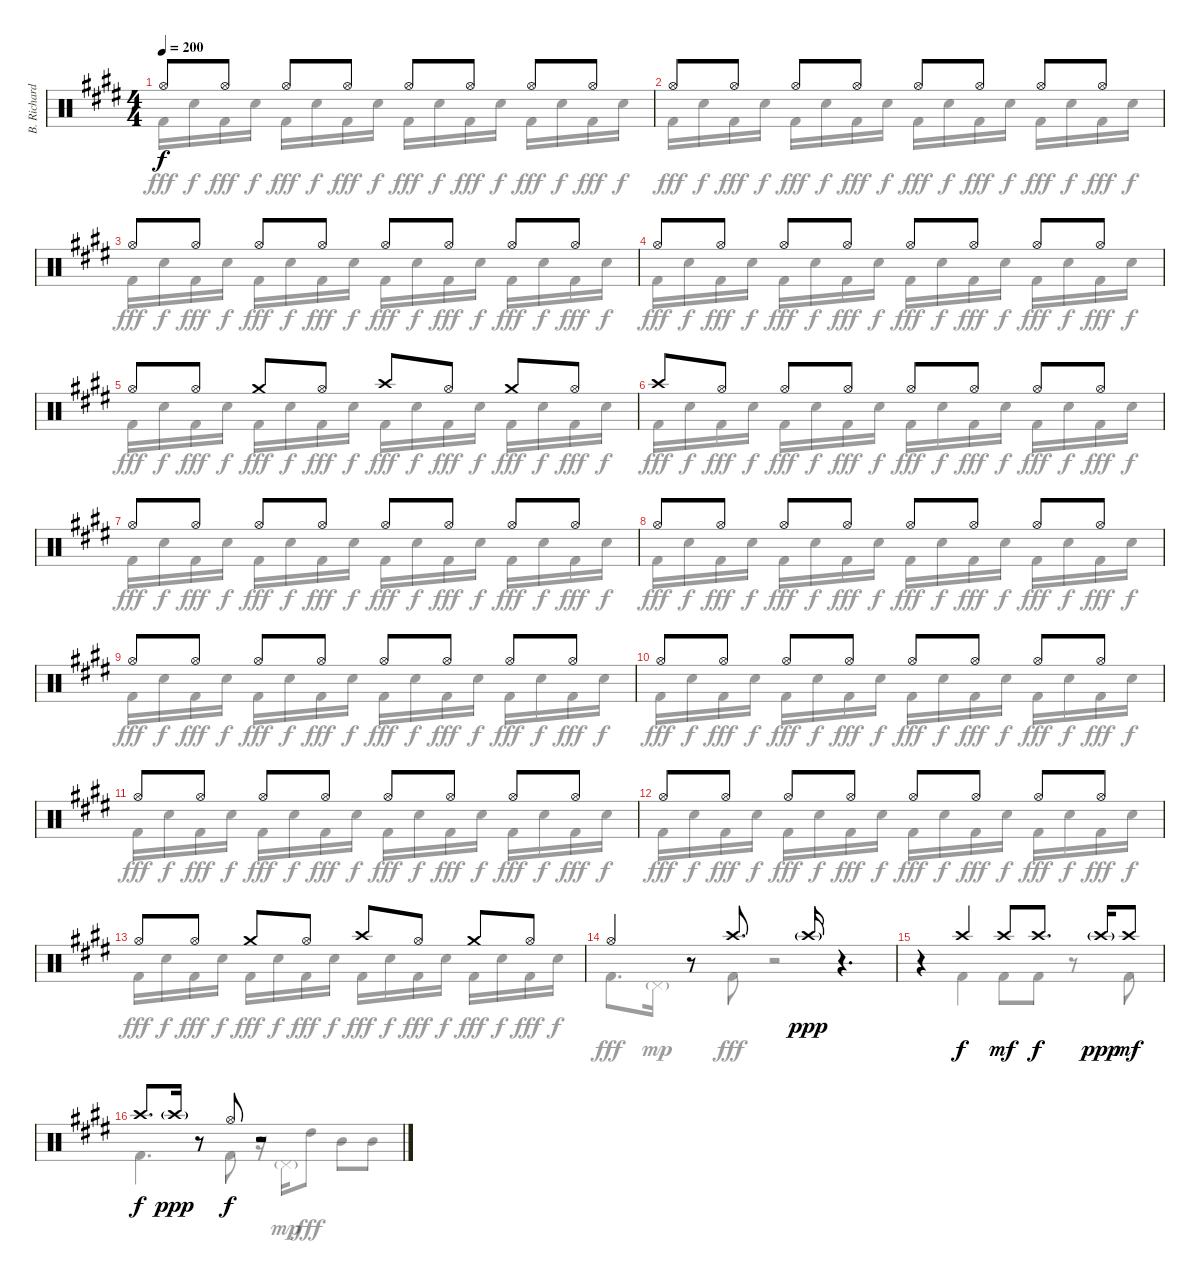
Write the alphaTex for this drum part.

\track ("B. Richardson Drums" "B. Richard") {instrument percussion}
\staff {score}
\articulation defaults
\voice
\ts (4 4)
\tempo 200
\clef neutral
\ks c#minor "Hi-Hat (open)".8{dy f} "Hi-Hat (open)".8 "Hi-Hat (open)".8 "Hi-Hat (open)".8 "Hi-Hat (open)".8 "Hi-Hat (open)".8 "Hi-Hat (open)".8 "Hi-Hat (open)".8
|
"Hi-Hat (open)".8 "Hi-Hat (open)".8 "Hi-Hat (open)".8 "Hi-Hat (open)".8 "Hi-Hat (open)".8 "Hi-Hat (open)".8 "Hi-Hat (open)".8 "Hi-Hat (open)".8 |
"Hi-Hat (open)".8 "Hi-Hat (open)".8 "Hi-Hat (open)".8 "Hi-Hat (open)".8 "Hi-Hat (open)".8 "Hi-Hat (open)".8 "Hi-Hat (open)".8 "Hi-Hat (open)".8 |
"Hi-Hat (open)".8 "Hi-Hat (open)".8 "Hi-Hat (open)".8 "Hi-Hat (open)".8 "Hi-Hat (open)".8 "Hi-Hat (open)".8 "Hi-Hat (open)".8 "Hi-Hat (open)".8 |
"Hi-Hat (open)".8 "Hi-Hat (open)".8 "Crash medium (hit)".8 "Hi-Hat (open)".8 "Crash high (hit)".8 "Hi-Hat (open)".8 "Crash medium (hit)".8 "Hi-Hat (open)".8 |
"Crash high (hit)".8 "Hi-Hat (open)".8 "Hi-Hat (open)".8 "Hi-Hat (open)".8 "Hi-Hat (open)".8 "Hi-Hat (open)".8 "Hi-Hat (open)".8 "Hi-Hat (open)".8 |
"Hi-Hat (open)".8 "Hi-Hat (open)".8 "Hi-Hat (open)".8 "Hi-Hat (open)".8 "Hi-Hat (open)".8 "Hi-Hat (open)".8 "Hi-Hat (open)".8 "Hi-Hat (open)".8 |
"Hi-Hat (open)".8 "Hi-Hat (open)".8 "Hi-Hat (open)".8 "Hi-Hat (open)".8 "Hi-Hat (open)".8 "Hi-Hat (open)".8 "Hi-Hat (open)".8 "Hi-Hat (open)".8 |
"Hi-Hat (open)".8 "Hi-Hat (open)".8 "Hi-Hat (open)".8 "Hi-Hat (open)".8 "Hi-Hat (open)".8 "Hi-Hat (open)".8 "Hi-Hat (open)".8 "Hi-Hat (open)".8 |
"Hi-Hat (open)".8 "Hi-Hat (open)".8 "Hi-Hat (open)".8 "Hi-Hat (open)".8 "Hi-Hat (open)".8 "Hi-Hat (open)".8 "Hi-Hat (open)".8 "Hi-Hat (open)".8 |
"Hi-Hat (open)".8 "Hi-Hat (open)".8 "Hi-Hat (open)".8 "Hi-Hat (open)".8 "Hi-Hat (open)".8 "Hi-Hat (open)".8 "Hi-Hat (open)".8 "Hi-Hat (open)".8 |
"Hi-Hat (open)".8 "Hi-Hat (open)".8 "Hi-Hat (open)".8 "Hi-Hat (open)".8 "Hi-Hat (open)".8 "Hi-Hat (open)".8 "Hi-Hat (open)".8 "Hi-Hat (open)".8 |
"Hi-Hat (open)".8 "Hi-Hat (open)".8 "Crash medium (hit)".8 "Hi-Hat (open)".8 "Crash high (hit)".8 "Hi-Hat (open)".8 "Crash medium (hit)".8 "Hi-Hat (open)".8 |
"Hi-Hat (open)".4 r.8 "Crash high (hit)".8{d} "Crash high (hit)"{g}.16{dy ppp} r.4{d} |
r.4 "Crash high (hit)".4{dy f} "Crash high (hit)".8{dy mf} "Crash high (hit)".8{d dy f} "Crash high (hit)"{g}.16{dy ppp} "Crash high (hit)".8{dy mf} |
"Crash high (hit)".8{d dy f} "Crash high (hit)"{g}.16{dy ppp} r.8 "Hi-Hat (open)".8{dy f} r.2
\voice
\clef neutral
\ottava regular
\simile none
\ks c#minor "Kick (hit) 2".16{dy fff} "Electric Snare (hit)".16{dy f} "Kick (hit) 2".16{dy fff} "Electric Snare (hit)".16{dy f} "Kick (hit) 2".16{dy fff} "Electric Snare (hit)".16{dy f} "Kick (hit) 2".16{dy fff} "Electric Snare (hit)".16{dy f} "Kick (hit) 2".16{dy fff} "Electric Snare (hit)".16{dy f} "Kick (hit) 2".16{dy fff} "Electric Snare (hit)".16{dy f} "Kick (hit) 2".16{dy fff} "Electric Snare (hit)".16{dy f} "Kick (hit) 2".16{dy fff} "Electric Snare (hit)".16{dy f}
|
"Kick (hit) 2".16{dy fff} "Electric Snare (hit)".16{dy f} "Kick (hit) 2".16{dy fff} "Electric Snare (hit)".16{dy f} "Kick (hit) 2".16{dy fff} "Electric Snare (hit)".16{dy f} "Kick (hit) 2".16{dy fff} "Electric Snare (hit)".16{dy f} "Kick (hit) 2".16{dy fff} "Electric Snare (hit)".16{dy f} "Kick (hit) 2".16{dy fff} "Electric Snare (hit)".16{dy f} "Kick (hit) 2".16{dy fff} "Electric Snare (hit)".16{dy f} "Kick (hit) 2".16{dy fff} "Electric Snare (hit)".16{dy f} |
"Kick (hit) 2".16{dy fff} "Electric Snare (hit)".16{dy f} "Kick (hit) 2".16{dy fff} "Electric Snare (hit)".16{dy f} "Kick (hit) 2".16{dy fff} "Electric Snare (hit)".16{dy f} "Kick (hit) 2".16{dy fff} "Electric Snare (hit)".16{dy f} "Kick (hit) 2".16{dy fff} "Electric Snare (hit)".16{dy f} "Kick (hit) 2".16{dy fff} "Electric Snare (hit)".16{dy f} "Kick (hit) 2".16{dy fff} "Electric Snare (hit)".16{dy f} "Kick (hit) 2".16{dy fff} "Electric Snare (hit)".16{dy f} |
"Kick (hit) 2".16{dy fff} "Electric Snare (hit)".16{dy f} "Kick (hit) 2".16{dy fff} "Electric Snare (hit)".16{dy f} "Kick (hit) 2".16{dy fff} "Electric Snare (hit)".16{dy f} "Kick (hit) 2".16{dy fff} "Electric Snare (hit)".16{dy f} "Kick (hit) 2".16{dy fff} "Electric Snare (hit)".16{dy f} "Kick (hit) 2".16{dy fff} "Electric Snare (hit)".16{dy f} "Kick (hit) 2".16{dy fff} "Electric Snare (hit)".16{dy f} "Kick (hit) 2".16{dy fff} "Electric Snare (hit)".16{dy f} |
"Kick (hit) 2".16{dy fff} "Electric Snare (hit)".16{dy f} "Kick (hit) 2".16{dy fff} "Electric Snare (hit)".16{dy f} "Kick (hit) 2".16{dy fff} "Electric Snare (hit)".16{dy f} "Kick (hit) 2".16{dy fff} "Electric Snare (hit)".16{dy f} "Kick (hit) 2".16{dy fff} "Electric Snare (hit)".16{dy f} "Kick (hit) 2".16{dy fff} "Electric Snare (hit)".16{dy f} "Kick (hit) 2".16{dy fff} "Electric Snare (hit)".16{dy f} "Kick (hit) 2".16{dy fff} "Electric Snare (hit)".16{dy f} |
"Kick (hit) 2".16{dy fff} "Electric Snare (hit)".16{dy f} "Kick (hit) 2".16{dy fff} "Electric Snare (hit)".16{dy f} "Kick (hit) 2".16{dy fff} "Electric Snare (hit)".16{dy f} "Kick (hit) 2".16{dy fff} "Electric Snare (hit)".16{dy f} "Kick (hit) 2".16{dy fff} "Electric Snare (hit)".16{dy f} "Kick (hit) 2".16{dy fff} "Electric Snare (hit)".16{dy f} "Kick (hit) 2".16{dy fff} "Electric Snare (hit)".16{dy f} "Kick (hit) 2".16{dy fff} "Electric Snare (hit)".16{dy f} |
"Kick (hit) 2".16{dy fff} "Electric Snare (hit)".16{dy f} "Kick (hit) 2".16{dy fff} "Electric Snare (hit)".16{dy f} "Kick (hit) 2".16{dy fff} "Electric Snare (hit)".16{dy f} "Kick (hit) 2".16{dy fff} "Electric Snare (hit)".16{dy f} "Kick (hit) 2".16{dy fff} "Electric Snare (hit)".16{dy f} "Kick (hit) 2".16{dy fff} "Electric Snare (hit)".16{dy f} "Kick (hit) 2".16{dy fff} "Electric Snare (hit)".16{dy f} "Kick (hit) 2".16{dy fff} "Electric Snare (hit)".16{dy f} |
"Kick (hit) 2".16{dy fff} "Electric Snare (hit)".16{dy f} "Kick (hit) 2".16{dy fff} "Electric Snare (hit)".16{dy f} "Kick (hit) 2".16{dy fff} "Electric Snare (hit)".16{dy f} "Kick (hit) 2".16{dy fff} "Electric Snare (hit)".16{dy f} "Kick (hit) 2".16{dy fff} "Electric Snare (hit)".16{dy f} "Kick (hit) 2".16{dy fff} "Electric Snare (hit)".16{dy f} "Kick (hit) 2".16{dy fff} "Electric Snare (hit)".16{dy f} "Kick (hit) 2".16{dy fff} "Electric Snare (hit)".16{dy f} |
"Kick (hit) 2".16{dy fff} "Electric Snare (hit)".16{dy f} "Kick (hit) 2".16{dy fff} "Electric Snare (hit)".16{dy f} "Kick (hit) 2".16{dy fff} "Electric Snare (hit)".16{dy f} "Kick (hit) 2".16{dy fff} "Electric Snare (hit)".16{dy f} "Kick (hit) 2".16{dy fff} "Electric Snare (hit)".16{dy f} "Kick (hit) 2".16{dy fff} "Electric Snare (hit)".16{dy f} "Kick (hit) 2".16{dy fff} "Electric Snare (hit)".16{dy f} "Kick (hit) 2".16{dy fff} "Electric Snare (hit)".16{dy f} |
"Kick (hit) 2".16{dy fff} "Electric Snare (hit)".16{dy f} "Kick (hit) 2".16{dy fff} "Electric Snare (hit)".16{dy f} "Kick (hit) 2".16{dy fff} "Electric Snare (hit)".16{dy f} "Kick (hit) 2".16{dy fff} "Electric Snare (hit)".16{dy f} "Kick (hit) 2".16{dy fff} "Electric Snare (hit)".16{dy f} "Kick (hit) 2".16{dy fff} "Electric Snare (hit)".16{dy f} "Kick (hit) 2".16{dy fff} "Electric Snare (hit)".16{dy f} "Kick (hit) 2".16{dy fff} "Electric Snare (hit)".16{dy f} |
"Kick (hit) 2".16{dy fff} "Electric Snare (hit)".16{dy f} "Kick (hit) 2".16{dy fff} "Electric Snare (hit)".16{dy f} "Kick (hit) 2".16{dy fff} "Electric Snare (hit)".16{dy f} "Kick (hit) 2".16{dy fff} "Electric Snare (hit)".16{dy f} "Kick (hit) 2".16{dy fff} "Electric Snare (hit)".16{dy f} "Kick (hit) 2".16{dy fff} "Electric Snare (hit)".16{dy f} "Kick (hit) 2".16{dy fff} "Electric Snare (hit)".16{dy f} "Kick (hit) 2".16{dy fff} "Electric Snare (hit)".16{dy f} |
"Kick (hit) 2".16{dy fff} "Electric Snare (hit)".16{dy f} "Kick (hit) 2".16{dy fff} "Electric Snare (hit)".16{dy f} "Kick (hit) 2".16{dy fff} "Electric Snare (hit)".16{dy f} "Kick (hit) 2".16{dy fff} "Electric Snare (hit)".16{dy f} "Kick (hit) 2".16{dy fff} "Electric Snare (hit)".16{dy f} "Kick (hit) 2".16{dy fff} "Electric Snare (hit)".16{dy f} "Kick (hit) 2".16{dy fff} "Electric Snare (hit)".16{dy f} "Kick (hit) 2".16{dy fff} "Electric Snare (hit)".16{dy f} |
"Kick (hit) 2".16{dy fff} "Electric Snare (hit)".16{dy f} "Kick (hit) 2".16{dy fff} "Electric Snare (hit)".16{dy f} "Kick (hit) 2".16{dy fff} "Electric Snare (hit)".16{dy f} "Kick (hit) 2".16{dy fff} "Electric Snare (hit)".16{dy f} "Kick (hit) 2".16{dy fff} "Electric Snare (hit)".16{dy f} "Kick (hit) 2".16{dy fff} "Electric Snare (hit)".16{dy f} "Kick (hit) 2".16{dy fff} "Electric Snare (hit)".16{dy f} "Kick (hit) 2".16{dy fff} "Electric Snare (hit)".16{dy f} |
"Kick (hit) 2".8{d dy fff} "Pedal Hi-Hat (hit)"{g}.16{dy mp} r.8 "Kick (hit) 2".8{dy fff} r.2 |
r.4 "Kick (hit) 2".4 "Kick (hit) 2".8 "Kick (hit) 2".8 r.8 "Kick (hit) 2".8 |
"Kick (hit) 2".4{d} "Kick (hit) 2".8 r.16 "Pedal Hi-Hat (hit)"{g}.16{dy mp} "High Tom (hit)".8{dy fff} "Mid Tom (hit)".8 "Mid Tom (hit)".8
